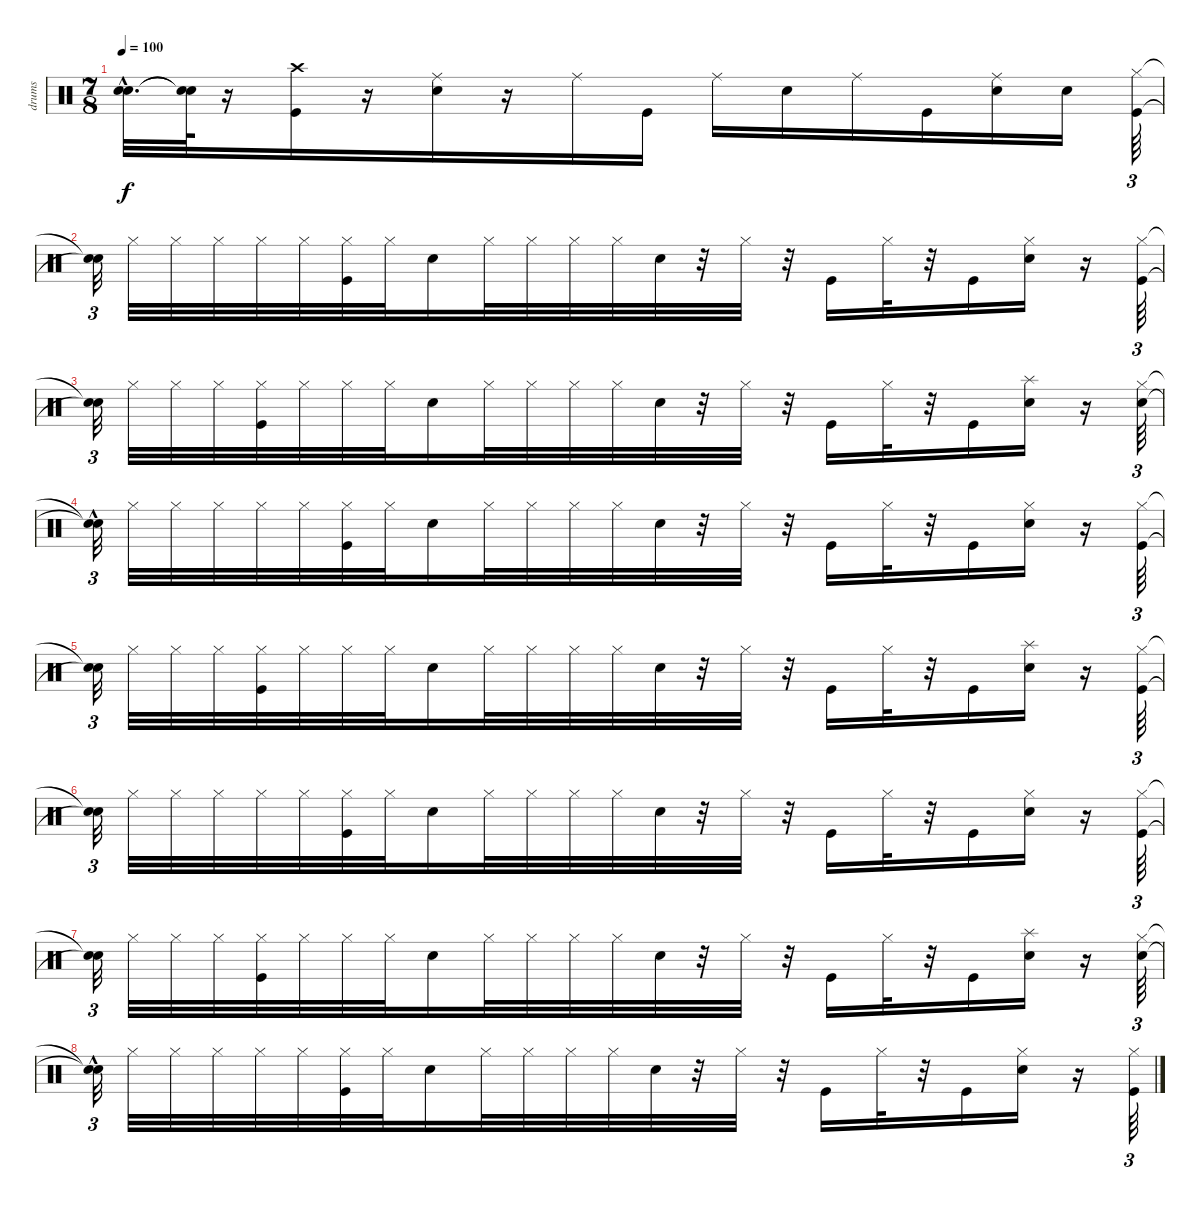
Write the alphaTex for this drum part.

\track ("drums" "drums") {instrument percussion}
\staff {score}
\articulation defaults
\ts (7 8)
\tempo 100
\clef neutral
\ks c
("Snare (hit)"{hac t} "Snare (hit)"{hac t}).32{d dy f} ("Snare (hit)"{t} "Snare (hit)"{t}).64 r.16 ("Kick (hit)" "Crash high (hit)").16 r.16 ("Electric Snare (hit)" "Ride (middle)").16 r.16 "Ride (middle)".16 "Kick (hit)".16 "Ride (middle)".16 "Electric Snare (hit)".16 "Ride (middle)".16 "Kick (hit)".16 ("Electric Snare (hit)" "Ride (middle)").16 "Electric Snare (hit)".16 ("Hi-Hat (closed)" "Kick (hit)").64{tu (3 2)} |
("Snare (hit)"{t} "Snare (hit)"{t}).32{tu (3 2)} "Hi-Hat (closed)".32 "Hi-Hat (closed)".32 "Hi-Hat (closed)".32 "Hi-Hat (closed)".32 "Hi-Hat (closed)".32 ("Kick (hit)" "Hi-Hat (closed)").32 "Hi-Hat (closed)".32 "Electric Snare (hit)".16 "Hi-Hat (closed)".32 "Hi-Hat (closed)".32 "Hi-Hat (closed)".32 "Hi-Hat (closed)".32 "Electric Snare (hit)".32 r.32 "Hi-Hat (closed)".32 r.32 "Kick (hit)".16 "Hi-Hat (closed)".32 r.32 "Kick (hit)".16 ("Hi-Hat (closed)" "Electric Snare (hit)").16 r.16 ("Kick (hit)" "Hi-Hat (closed)").64{tu (3 2)} |
("Snare (hit)"{t} "Snare (hit)"{t}).32{tu (3 2)} "Hi-Hat (closed)".32 "Hi-Hat (closed)".32 "Hi-Hat (closed)".32 ("Kick (hit)" "Hi-Hat (closed)").32 "Hi-Hat (closed)".32 "Hi-Hat (closed)".32 "Hi-Hat (closed)".32 "Electric Snare (hit)".16 "Hi-Hat (closed)".32 "Hi-Hat (closed)".32 "Hi-Hat (closed)".32 "Hi-Hat (closed)".32 "Electric Snare (hit)".32 r.32 "Hi-Hat (closed)".32 r.32 "Kick (hit)".16 "Hi-Hat (closed)".32 r.32 "Kick (hit)".16 ("Electric Snare (hit)" "Splash (hit)").16 r.16 ("Hi-Hat (closed)" "Electric Snare (hit)").64{tu (3 2)} |
("Snare (hit)"{t} "Snare (hit)"{hac t}).32{tu (3 2)} "Hi-Hat (closed)".32 "Hi-Hat (closed)".32 "Hi-Hat (closed)".32 "Hi-Hat (closed)".32 "Hi-Hat (closed)".32 ("Hi-Hat (closed)" "Kick (hit)").32 "Hi-Hat (closed)".32 "Electric Snare (hit)".16 "Hi-Hat (closed)".32 "Hi-Hat (closed)".32 "Hi-Hat (closed)".32 "Hi-Hat (closed)".32 "Electric Snare (hit)".32 r.32 "Hi-Hat (closed)".32 r.32 "Kick (hit)".16 "Hi-Hat (closed)".32 r.32 "Kick (hit)".16 ("Electric Snare (hit)" "Hi-Hat (closed)").16 r.16 ("Kick (hit)" "Hi-Hat (closed)").64{tu (3 2)} |
("Snare (hit)"{t} "Snare (hit)"{t}).32{tu (3 2)} "Hi-Hat (closed)".32 "Hi-Hat (closed)".32 "Hi-Hat (closed)".32 ("Kick (hit)" "Hi-Hat (closed)").32 "Hi-Hat (closed)".32 "Hi-Hat (closed)".32 "Hi-Hat (closed)".32 "Electric Snare (hit)".16 "Hi-Hat (closed)".32 "Hi-Hat (closed)".32 "Hi-Hat (closed)".32 "Hi-Hat (closed)".32 "Electric Snare (hit)".32 r.32 "Hi-Hat (closed)".32 r.32 "Kick (hit)".16 "Hi-Hat (closed)".32 r.32 "Kick (hit)".16 ("Splash (hit)" "Electric Snare (hit)").16 r.16 ("Hi-Hat (closed)" "Kick (hit)").64{tu (3 2)} |
("Snare (hit)"{t} "Snare (hit)"{t}).32{tu (3 2)} "Hi-Hat (closed)".32 "Hi-Hat (closed)".32 "Hi-Hat (closed)".32 "Hi-Hat (closed)".32 "Hi-Hat (closed)".32 ("Kick (hit)" "Hi-Hat (closed)").32 "Hi-Hat (closed)".32 "Electric Snare (hit)".16 "Hi-Hat (closed)".32 "Hi-Hat (closed)".32 "Hi-Hat (closed)".32 "Hi-Hat (closed)".32 "Electric Snare (hit)".32 r.32 "Hi-Hat (closed)".32 r.32 "Kick (hit)".16 "Hi-Hat (closed)".32 r.32 "Kick (hit)".16 ("Hi-Hat (closed)" "Electric Snare (hit)").16 r.16 ("Kick (hit)" "Hi-Hat (closed)").64{tu (3 2)} |
("Snare (hit)"{t} "Snare (hit)"{t}).32{tu (3 2)} "Hi-Hat (closed)".32 "Hi-Hat (closed)".32 "Hi-Hat (closed)".32 ("Kick (hit)" "Hi-Hat (closed)").32 "Hi-Hat (closed)".32 "Hi-Hat (closed)".32 "Hi-Hat (closed)".32 "Electric Snare (hit)".16 "Hi-Hat (closed)".32 "Hi-Hat (closed)".32 "Hi-Hat (closed)".32 "Hi-Hat (closed)".32 "Electric Snare (hit)".32 r.32 "Hi-Hat (closed)".32 r.32 "Kick (hit)".16 "Hi-Hat (closed)".32 r.32 "Kick (hit)".16 ("Electric Snare (hit)" "Splash (hit)").16 r.16 ("Hi-Hat (closed)" "Electric Snare (hit)").64{tu (3 2)} |
("Snare (hit)"{t} "Snare (hit)"{hac t}).32{tu (3 2)} "Hi-Hat (closed)".32 "Hi-Hat (closed)".32 "Hi-Hat (closed)".32 "Hi-Hat (closed)".32 "Hi-Hat (closed)".32 ("Hi-Hat (closed)" "Kick (hit)").32 "Hi-Hat (closed)".32 "Electric Snare (hit)".16 "Hi-Hat (closed)".32 "Hi-Hat (closed)".32 "Hi-Hat (closed)".32 "Hi-Hat (closed)".32 "Electric Snare (hit)".32 r.32 "Hi-Hat (closed)".32 r.32 "Kick (hit)".16 "Hi-Hat (closed)".32 r.32 "Kick (hit)".16 ("Electric Snare (hit)" "Hi-Hat (closed)").16 r.16 ("Hi-Hat (closed)" "Kick (hit)").64{tu (3 2)}
